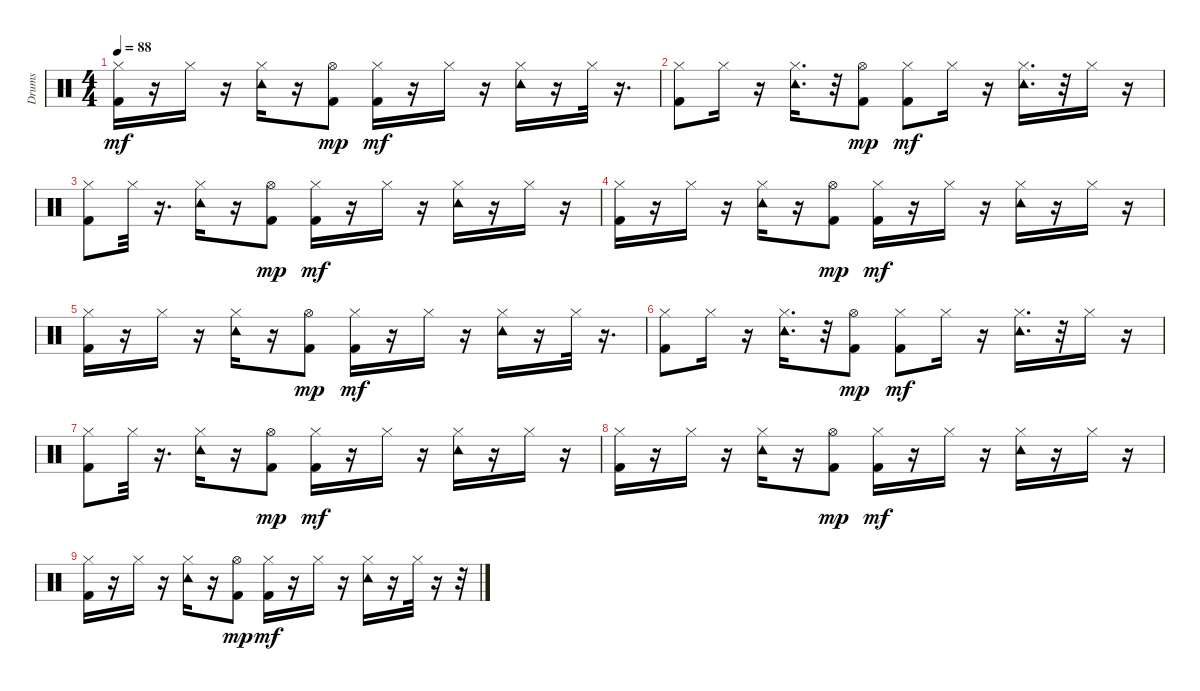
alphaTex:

\track ("Drums" "Drums") {instrument percussion}
\staff {score}
\articulation defaults
\ts (4 4)
\tempo 88
\clef neutral
\ks c
("Kick (hit) 2" "Hi-Hat (closed)").16{dy mf} r.16 "Hi-Hat (closed)".16 r.16 ("Tambourine (hit)" "Hi-Hat (closed)").16 r.16 ("Kick (hit) 2" "Hi-Hat (open)").8{dy mp} ("Kick (hit) 2" "Hi-Hat (closed)").16{dy mf} r.16 "Hi-Hat (closed)".16 r.16 ("Tambourine (hit)" "Hi-Hat (closed)").16 r.16 "Hi-Hat (closed)".32 r.16{d} |
("Kick (hit) 2" "Hi-Hat (closed)").8 "Hi-Hat (closed)".16 r.16 ("Tambourine (hit)" "Hi-Hat (closed)").16{d} r.32 ("Kick (hit) 2" "Hi-Hat (open)").8{dy mp} ("Kick (hit) 2" "Hi-Hat (closed)").8{dy mf} "Hi-Hat (closed)".16 r.16 ("Tambourine (hit)" "Hi-Hat (closed)").16{d} r.32 "Hi-Hat (closed)".16 r.16 |
("Kick (hit) 2" "Hi-Hat (closed)").8 "Hi-Hat (closed)".32 r.16{d} ("Tambourine (hit)" "Hi-Hat (closed)").16 r.16 ("Kick (hit) 2" "Hi-Hat (open)").8{dy mp} ("Kick (hit) 2" "Hi-Hat (closed)").16{dy mf} r.16 "Hi-Hat (closed)".16 r.16 ("Tambourine (hit)" "Hi-Hat (closed)").16 r.16 "Hi-Hat (closed)".16 r.16 |
("Kick (hit) 2" "Hi-Hat (closed)").16 r.16 "Hi-Hat (closed)".16 r.16 ("Tambourine (hit)" "Hi-Hat (closed)").16 r.16 ("Kick (hit) 2" "Hi-Hat (open)").8{dy mp} ("Kick (hit) 2" "Hi-Hat (closed)").16{dy mf} r.16 "Hi-Hat (closed)".16 r.16 ("Tambourine (hit)" "Hi-Hat (closed)").16 r.16 "Hi-Hat (closed)".16 r.16 |
("Kick (hit) 2" "Hi-Hat (closed)").16 r.16 "Hi-Hat (closed)".16 r.16 ("Tambourine (hit)" "Hi-Hat (closed)").16 r.16 ("Kick (hit) 2" "Hi-Hat (open)").8{dy mp} ("Kick (hit) 2" "Hi-Hat (closed)").16{dy mf} r.16 "Hi-Hat (closed)".16 r.16 ("Tambourine (hit)" "Hi-Hat (closed)").16 r.16 "Hi-Hat (closed)".32 r.16{d} |
("Kick (hit) 2" "Hi-Hat (closed)").8 "Hi-Hat (closed)".16 r.16 ("Tambourine (hit)" "Hi-Hat (closed)").16{d} r.32 ("Kick (hit) 2" "Hi-Hat (open)").8{dy mp} ("Kick (hit) 2" "Hi-Hat (closed)").8{dy mf} "Hi-Hat (closed)".16 r.16 ("Tambourine (hit)" "Hi-Hat (closed)").16{d} r.32 "Hi-Hat (closed)".16 r.16 |
("Kick (hit) 2" "Hi-Hat (closed)").8 "Hi-Hat (closed)".32 r.16{d} ("Tambourine (hit)" "Hi-Hat (closed)").16 r.16 ("Kick (hit) 2" "Hi-Hat (open)").8{dy mp} ("Kick (hit) 2" "Hi-Hat (closed)").16{dy mf} r.16 "Hi-Hat (closed)".16 r.16 ("Tambourine (hit)" "Hi-Hat (closed)").16 r.16 "Hi-Hat (closed)".16 r.16 |
("Kick (hit) 2" "Hi-Hat (closed)").16 r.16 "Hi-Hat (closed)".16 r.16 ("Tambourine (hit)" "Hi-Hat (closed)").16 r.16 ("Kick (hit) 2" "Hi-Hat (open)").8{dy mp} ("Kick (hit) 2" "Hi-Hat (closed)").16{dy mf} r.16 "Hi-Hat (closed)".16 r.16 ("Tambourine (hit)" "Hi-Hat (closed)").16 r.16 "Hi-Hat (closed)".16 r.16 |
("Kick (hit) 2" "Hi-Hat (closed)").16 r.16 "Hi-Hat (closed)".16 r.16 ("Tambourine (hit)" "Hi-Hat (closed)").16 r.16 ("Kick (hit) 2" "Hi-Hat (open)").8{dy mp} ("Kick (hit) 2" "Hi-Hat (closed)").16{dy mf} r.16 "Hi-Hat (closed)".16 r.16 ("Tambourine (hit)" "Hi-Hat (closed)").16 r.16 "Hi-Hat (closed)".32 r.16 r.32
